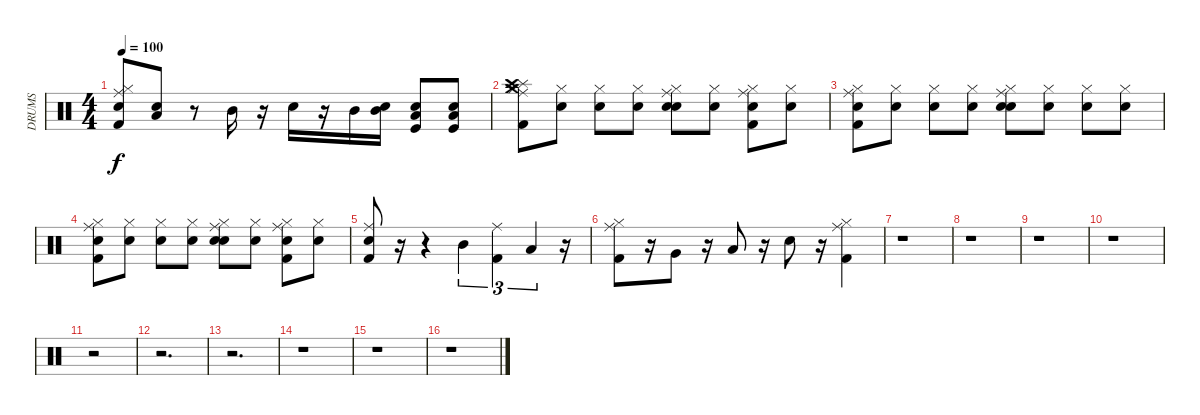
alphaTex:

\track ("DRUMS" "DRUMS") {instrument percussion}
\staff {score}
\articulation defaults
\ts (4 4)
\tempo 100
\clef neutral
\ks c
("Snare (hit)" "Ride (middle)" "Hi-Hat (closed)" "Kick (hit) 2").8{dy f} ("Snare (hit)" "Low Tom (hit)").8 r.8 "Mid Tom (hit)".16 r.16 "Snare (hit) 2".16 r.16 "Mid Tom (hit)".16 ("Snare (hit)" "Mid Tom (hit)").16 ("Snare (hit)" "Kick (hit)" "Low Tom (hit)").8 ("Snare (hit)" "Kick (hit)" "Low Tom (hit)").8 |
("Ride (middle)" "Hi-Hat (closed)" "Kick (hit) 2" "Crash medium (hit)" "Splash (hit)" "Crash high (hit)").8 ("Snare (hit)" "Hi-Hat (closed)").8 ("Snare (hit)" "Hi-Hat (closed)").8 ("Snare (hit)" "Hi-Hat (closed)").8 ("Snare (hit)" "Ride (middle)" "Hi-Hat (closed)" "Snare (hit) 2").8 ("Snare (hit)" "Hi-Hat (closed)").8 ("Snare (hit)" "Kick (hit) 2" "Ride (middle)" "Hi-Hat (closed)").8 ("Snare (hit)" "Hi-Hat (closed)").8{txt ""} |
("Snare (hit)" "Kick (hit) 2" "Ride (middle)" "Hi-Hat (closed)").8 ("Snare (hit)" "Hi-Hat (closed)").8 ("Snare (hit)" "Hi-Hat (closed)").8 ("Snare (hit)" "Hi-Hat (closed)").8 ("Snare (hit)" "Snare (hit) 2" "Ride (middle)" "Hi-Hat (closed)").8 ("Snare (hit)" "Hi-Hat (closed)").8 ("Snare (hit)" "Hi-Hat (closed)").8 ("Snare (hit)" "Hi-Hat (closed)").8 |
("Snare (hit)" "Kick (hit) 2" "Ride (middle)" "Hi-Hat (closed)").8 ("Snare (hit)" "Hi-Hat (closed)").8 ("Snare (hit)" "Hi-Hat (closed)").8 ("Snare (hit)" "Hi-Hat (closed)").8 ("Snare (hit)" "Ride (middle)" "Snare (hit) 2" "Hi-Hat (closed)").8 ("Snare (hit)" "Hi-Hat (closed)").8 ("Snare (hit)" "Ride (middle)" "Kick (hit) 2" "Hi-Hat (closed)").8 ("Snare (hit)" "Hi-Hat (closed)").8 |
("Snare (hit)" "Ride (middle)" "Kick (hit) 2").8 r.16 r.4 "Mid Tom (hit)".4{tu (3 2)} ("Ride (middle)" "Kick (hit) 2").4{tu (3 2)} "Low Tom (hit)".4{tu (3 2)} r.16 |
("Ride (middle)" "Kick (hit) 2" "Hi-Hat (closed)").8 r.16 "Very Low Tom (hit)".8 r.16 "Low Floor Tom (hit)".8 r.16 "Snare (hit) 2".8 r.16 ("Ride (middle)" "Kick (hit) 2" "Hi-Hat (closed)").4 |
r.1 |
r.1 |
r.1 |
r.1 |
r.2 |
r.2{d} |
r.2{d} |
r.1 |
r.1 |
r.1
